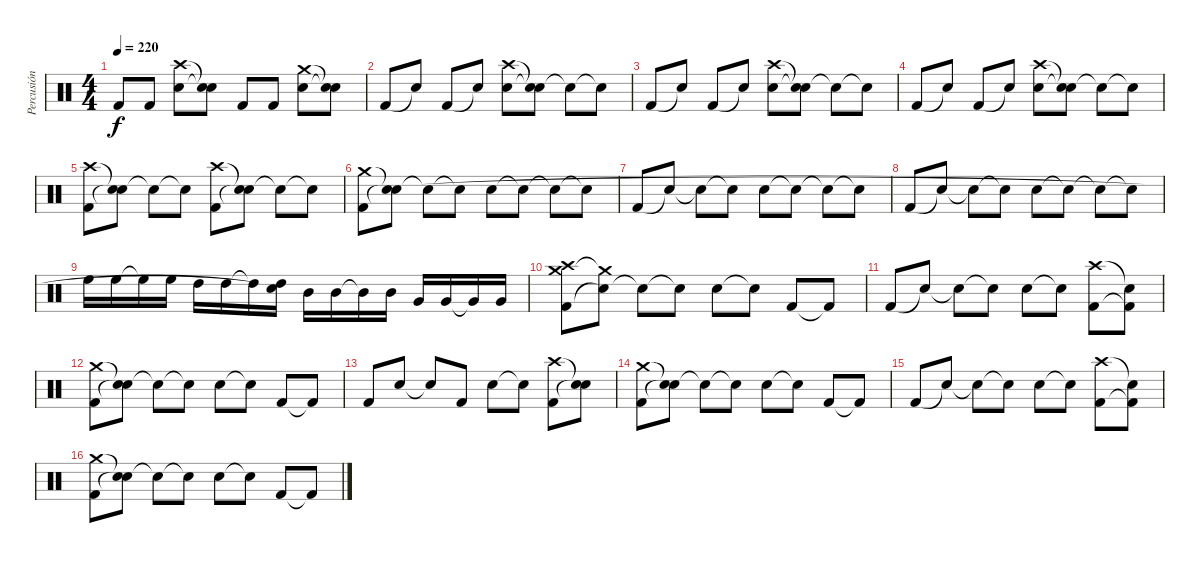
\track ("Percusión" "Percusión") {instrument percussion}
\staff {score}
\articulation defaults
\ts (4 4)
\tempo 220
\clef neutral
\ks c "Kick (hit) 2".8{dy f} "Kick (hit) 2".8
("Snare (hit) 2" "Crash high (hit)").8 ("Snare (hit)"{t} "Snare (hit)"{t}).8 "Kick (hit) 2".8 "Kick (hit) 2".8 ("Snare (hit) 2" "Crash medium (hit)").8 ("Snare (hit)"{t} "Snare (hit)"{t}).8 |
"Kick (hit) 2".8 "Snare (hit)"{t}.8 "Kick (hit) 2".8 "Snare (hit)"{t}.8 ("Snare (hit) 2" "Crash high (hit)").8 ("Snare (hit)"{t} "Snare (hit)"{t}).8 "Snare (hit)"{t}.8 "Snare (hit)"{t}.8 |
"Kick (hit) 2".8 "Snare (hit)"{t}.8 "Kick (hit) 2".8 "Snare (hit)"{t}.8 ("Snare (hit) 2" "Crash high (hit)").8 ("Snare (hit)"{t} "Snare (hit)"{t}).8 "Snare (hit)"{t}.8 "Snare (hit)"{t}.8 |
"Kick (hit) 2".8 "Snare (hit)"{t}.8 "Kick (hit) 2".8 "Snare (hit)"{t}.8 ("Snare (hit) 2" "Crash high (hit)").8 ("Snare (hit)"{t} "Snare (hit)"{t}).8 "Snare (hit)"{t}.8 "Snare (hit)"{t}.8 |
("Kick (hit) 2" "Crash high (hit)").8 ("Snare (hit)"{t} "Snare (hit)"{t}).8 "Snare (hit)"{t}.8 "Snare (hit)"{t}.8 ("Kick (hit) 2" "Crash high (hit)").8 ("Snare (hit)"{t} "Snare (hit)"{t}).8 "Snare (hit)"{t}.8 "Snare (hit)"{t}.8 |
("Kick (hit) 2" "Crash medium (hit)").8 ("Snare (hit)"{t} "Snare (hit)"{t}).8 "Snare (hit)"{t}.8 "Snare (hit)"{t}.8 "Snare (hit) 2".8 "Snare (hit)"{t}.8 "Snare (hit)"{t}.8 "Snare (hit)"{t}.8 |
"Kick (hit) 2".8 "Snare (hit)"{t}.8 "Snare (hit)"{t}.8 "Snare (hit)"{t}.8 "Snare (hit) 2".8 "Snare (hit)"{t}.8 "Snare (hit)"{t}.8 "Snare (hit)"{t}.8 |
"Kick (hit) 2".8 "Snare (hit)"{t}.8 "Snare (hit)"{t}.8 "Snare (hit)"{t}.8 "Snare (hit) 2".8 "Snare (hit)"{t}.8 "Snare (hit)"{t}.8 "Snare (hit)"{t}.8 |
"High Floor Tom (hit)".16 "High Floor Tom (hit)".16 "High Floor Tom (hit)"{t}.16 "High Floor Tom (hit)".16 "High Tom (hit)".16 "High Tom (hit)".16 "High Tom (hit)"{t}.16 ("High Tom (hit)" "Snare (hit)"{t}).16 "Mid Tom (hit)".16 "Mid Tom (hit)".16 "Mid Tom (hit)"{t}.16 "Mid Tom (hit)".16 "Very Low Tom (hit)".16 "Very Low Tom (hit)".16 "Very Low Tom (hit)"{t}.16 "Very Low Tom (hit)".16 |
("Kick (hit) 2" "Crash medium (hit)" "Crash high (hit)").8 ("Snare (hit)"{t} "Crash medium (hit)"{t}).8 "Snare (hit)"{t}.8 "Snare (hit)"{t}.8 "Snare (hit) 2".8 "Snare (hit)"{t}.8 "Kick (hit) 2".8 "Kick (hit) 2"{t}.8 |
"Kick (hit) 2".8 "Snare (hit)"{t}.8 "Snare (hit)"{t}.8 "Snare (hit)"{t}.8 "Snare (hit) 2".8 "Snare (hit)"{t}.8 ("Kick (hit) 2" "Crash high (hit)").8 ("Kick (hit) 2"{t} "Snare (hit)"{t}).8 |
("Kick (hit) 2" "Crash medium (hit)").8 ("Snare (hit)"{t} "Snare (hit)"{t}).8 "Snare (hit)"{t}.8 "Snare (hit)"{t}.8 "Snare (hit) 2".8 "Snare (hit)"{t}.8 "Kick (hit) 2".8 "Kick (hit) 2"{t}.8 |
"Kick (hit) 2".8 "Snare (hit) 2".8 "Snare (hit)"{t}.8 "Kick (hit) 2".8 "Snare (hit) 2".8 "Snare (hit)"{t}.8 ("Kick (hit) 2" "Crash high (hit)").8 ("Snare (hit)"{t} "Snare (hit)"{t}).8 |
("Kick (hit) 2" "Crash medium (hit)").8 ("Snare (hit)"{t} "Snare (hit)"{t}).8 "Snare (hit)"{t}.8 "Snare (hit)"{t}.8 "Snare (hit) 2".8 "Snare (hit)"{t}.8 "Kick (hit) 2".8 "Kick (hit) 2"{t}.8 |
"Kick (hit) 2".8 "Snare (hit)"{t}.8 "Snare (hit)"{t}.8 "Snare (hit)"{t}.8 "Snare (hit) 2".8 "Snare (hit)"{t}.8 ("Kick (hit) 2" "Crash high (hit)").8 ("Kick (hit) 2"{t} "Snare (hit)"{t}).8 |
("Kick (hit) 2" "Crash medium (hit)").8 ("Snare (hit)"{t} "Snare (hit)"{t}).8 "Snare (hit)"{t}.8 "Snare (hit)"{t}.8 "Snare (hit) 2".8 "Snare (hit)"{t}.8 "Kick (hit) 2".8 "Kick (hit) 2"{t}.8
